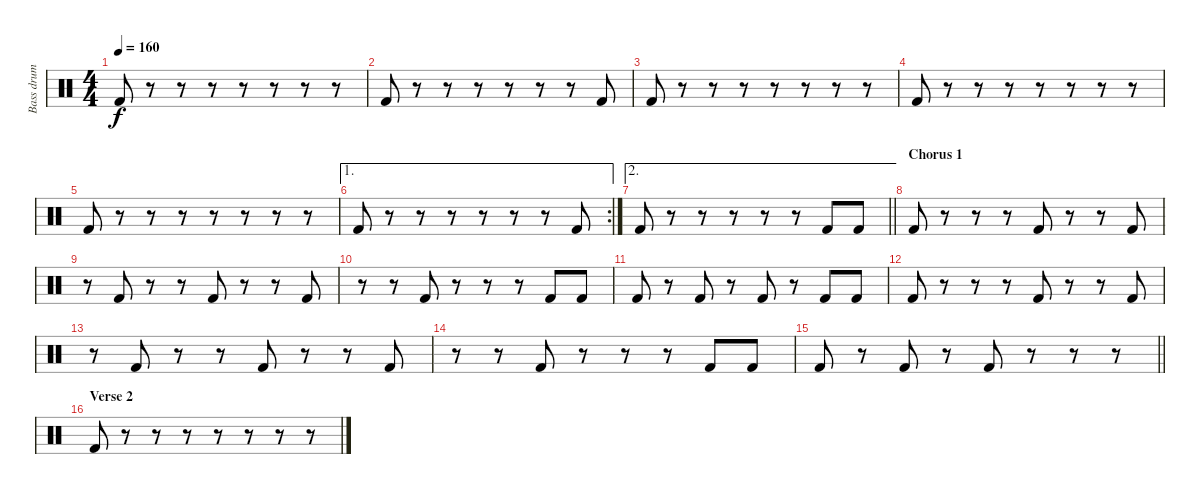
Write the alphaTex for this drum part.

\track ("Bass drum" "Bass drum") {instrument percussion}
\staff {score}
\articulation defaults
\ts (4 4)
\tempo 160
\clef neutral
\ks c "Kick (hit) 2".8{dy f}
r.8 r.8 r.8 r.8 r.8 r.8 r.8 |
"Kick (hit) 2".8 r.8 r.8 r.8 r.8 r.8 r.8 "Kick (hit) 2".8 |
"Kick (hit) 2".8 r.8 r.8 r.8 r.8 r.8 r.8 r.8 |
"Kick (hit) 2".8 r.8 r.8 r.8 r.8 r.8 r.8 r.8 |
"Kick (hit) 2".8 r.8 r.8 r.8 r.8 r.8 r.8 r.8 |
\ae 1
\rc 2 "Kick (hit) 2".8
r.8 r.8 r.8 r.8 r.8 r.8 "Kick (hit) 2".8 |
\ae 2
\barLineRight lightlight "Kick (hit) 2".8
r.8 r.8 r.8 r.8 r.8 "Kick (hit) 2".8 "Kick (hit) 2".8 |
\section ("" "Chorus 1")
"Kick (hit) 2".8 r.8 r.8 r.8 "Kick (hit) 2".8 r.8 r.8 "Kick (hit) 2".8 |
r.8 "Kick (hit) 2".8 r.8 r.8 "Kick (hit) 2".8 r.8 r.8 "Kick (hit) 2".8 |
r.8 r.8 "Kick (hit) 2".8 r.8 r.8 r.8 "Kick (hit) 2".8 "Kick (hit) 2".8 |
"Kick (hit) 2".8 r.8 "Kick (hit) 2".8 r.8 "Kick (hit) 2".8 r.8 "Kick (hit) 2".8 "Kick (hit) 2".8 |
"Kick (hit) 2".8 r.8 r.8 r.8 "Kick (hit) 2".8 r.8 r.8 "Kick (hit) 2".8 |
r.8 "Kick (hit) 2".8 r.8 r.8 "Kick (hit) 2".8 r.8 r.8 "Kick (hit) 2".8 |
r.8 r.8 "Kick (hit) 2".8 r.8 r.8 r.8 "Kick (hit) 2".8 "Kick (hit) 2".8 |
\barLineRight lightlight "Kick (hit) 2".8
r.8 "Kick (hit) 2".8 r.8 "Kick (hit) 2".8 r.8 r.8 r.8 |
\section ("" "Verse 2")
"Kick (hit) 2".8 r.8 r.8 r.8 r.8 r.8 r.8 r.8
